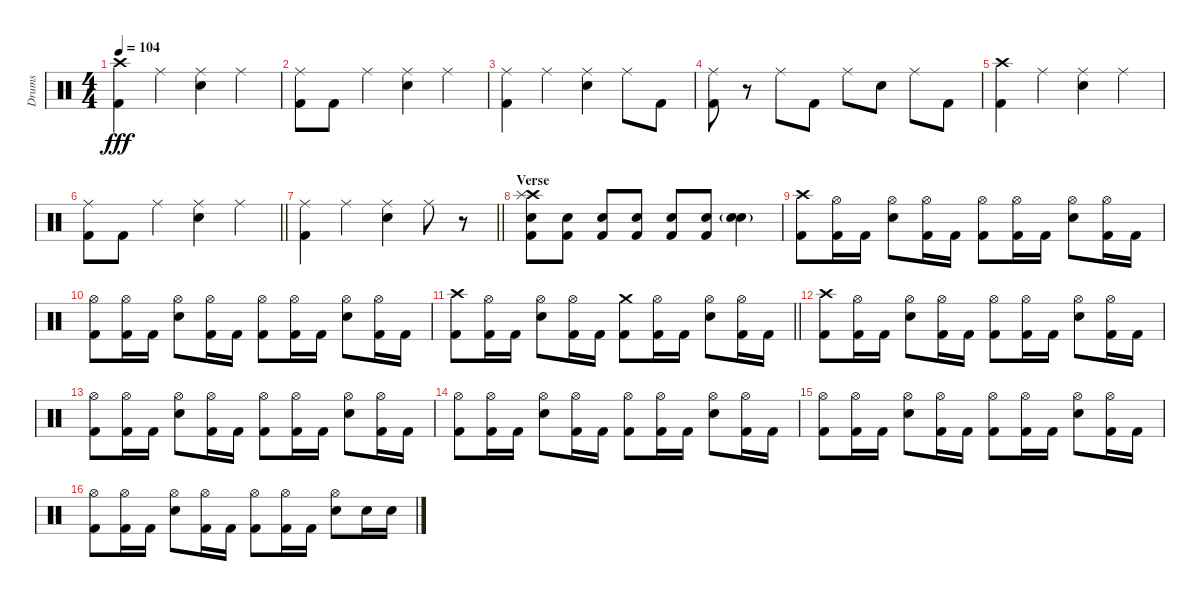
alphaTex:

\track ("Drums" "Drums") {instrument percussion}
\staff {score}
\articulation defaults
\ts (4 4)
\tempo 104
\clef neutral
\ks c
("Crash high (hit)" "Kick (hit) 2").4{dy fff} "Ride (middle)".4 ("Ride (middle)" "Snare (hit) 2").4 "Ride (middle)".4 |
("Ride (middle)" "Kick (hit) 2").8 "Kick (hit) 2".8 "Ride (middle)".4 ("Ride (middle)" "Snare (hit) 2").4 "Ride (middle)".4 |
("Ride (middle)" "Kick (hit) 2").4 "Ride (middle)".4 ("Ride (middle)" "Snare (hit) 2").4 "Ride (middle)".8 "Kick (hit) 2".8 |
("Ride (middle)" "Kick (hit) 2").8 r.8 "Ride (middle)".8 "Kick (hit) 2".8 "Ride (middle)".8 "Snare (hit) 2".8 "Ride (middle)".8 "Kick (hit) 2".8 |
("Crash high (hit)" "Kick (hit) 2").4 "Ride (middle)".4 ("Ride (middle)" "Snare (hit) 2").4 "Ride (middle)".4 |
\barLineRight lightlight
("Ride (middle)" "Kick (hit) 2").8 "Kick (hit) 2".8 "Ride (middle)".4 ("Ride (middle)" "Snare (hit) 2").4 "Ride (middle)".4 |
\barLineRight lightlight
("Ride (middle)" "Kick (hit) 2").4 "Ride (middle)".4 ("Ride (middle)" "Snare (hit) 2").4 "Ride (middle)".8 r.8 |
\section ("" "Verse")
("Crash high (hit)" "Snare (hit) 2" "Splash (hit)" "Kick (hit) 2").8 ("Snare (hit) 2" "Kick (hit) 2").8 ("Snare (hit) 2" "Kick (hit) 2").8 ("Snare (hit) 2" "Kick (hit) 2").8 ("Snare (hit) 2" "Kick (hit) 2").8 ("Snare (hit) 2" "Kick (hit) 2").8 ("Snare (hit) 2" "Electric Snare (hit)"{g}).4 |
("Crash high (hit)" "Kick (hit) 2").8 ("Hi-Hat (open)" "Kick (hit) 2").16 "Kick (hit) 2".16 ("Hi-Hat (open)" "Snare (hit) 2").8 ("Hi-Hat (open)" "Kick (hit) 2").16 "Kick (hit) 2".16 ("Hi-Hat (open)" "Kick (hit) 2").8 ("Hi-Hat (open)" "Kick (hit) 2").16 "Kick (hit) 2".16 ("Hi-Hat (open)" "Snare (hit) 2").8 ("Hi-Hat (open)" "Kick (hit) 2").16 "Kick (hit) 2".16 |
("Hi-Hat (open)" "Kick (hit) 2").8 ("Hi-Hat (open)" "Kick (hit) 2").16 "Kick (hit) 2".16 ("Hi-Hat (open)" "Snare (hit) 2").8 ("Hi-Hat (open)" "Kick (hit) 2").16 "Kick (hit) 2".16 ("Hi-Hat (open)" "Kick (hit) 2").8 ("Hi-Hat (open)" "Kick (hit) 2").16 "Kick (hit) 2".16 ("Hi-Hat (open)" "Snare (hit) 2").8 ("Hi-Hat (open)" "Kick (hit) 2").16 "Kick (hit) 2".16 |
\barLineRight lightlight
("Crash high (hit)" "Kick (hit) 2").8 ("Hi-Hat (open)" "Kick (hit) 2").16 "Kick (hit) 2".16 ("Hi-Hat (open)" "Snare (hit) 2").8 ("Hi-Hat (open)" "Kick (hit) 2").16 "Kick (hit) 2".16 ("Crash medium (hit)" "Kick (hit) 2").8 ("Hi-Hat (open)" "Kick (hit) 2").16 "Kick (hit) 2".16 ("Hi-Hat (open)" "Snare (hit) 2").8 ("Hi-Hat (open)" "Kick (hit) 2").16 "Kick (hit) 2".16 |
("Crash high (hit)" "Kick (hit) 2").8 ("Hi-Hat (open)" "Kick (hit) 2").16 "Kick (hit) 2".16 ("Hi-Hat (open)" "Snare (hit) 2").8 ("Hi-Hat (open)" "Kick (hit) 2").16 "Kick (hit) 2".16 ("Hi-Hat (open)" "Kick (hit) 2").8 ("Hi-Hat (open)" "Kick (hit) 2").16 "Kick (hit) 2".16 ("Hi-Hat (open)" "Snare (hit) 2").8 ("Hi-Hat (open)" "Kick (hit) 2").16 "Kick (hit) 2".16 |
("Hi-Hat (open)" "Kick (hit) 2").8 ("Hi-Hat (open)" "Kick (hit) 2").16 "Kick (hit) 2".16 ("Hi-Hat (open)" "Snare (hit) 2").8 ("Hi-Hat (open)" "Kick (hit) 2").16 "Kick (hit) 2".16 ("Hi-Hat (open)" "Kick (hit) 2").8 ("Hi-Hat (open)" "Kick (hit) 2").16 "Kick (hit) 2".16 ("Hi-Hat (open)" "Snare (hit) 2").8 ("Hi-Hat (open)" "Kick (hit) 2").16 "Kick (hit) 2".16 |
("Hi-Hat (open)" "Kick (hit) 2").8 ("Hi-Hat (open)" "Kick (hit) 2").16 "Kick (hit) 2".16 ("Hi-Hat (open)" "Snare (hit) 2").8 ("Hi-Hat (open)" "Kick (hit) 2").16 "Kick (hit) 2".16 ("Hi-Hat (open)" "Kick (hit) 2").8 ("Hi-Hat (open)" "Kick (hit) 2").16 "Kick (hit) 2".16 ("Hi-Hat (open)" "Snare (hit) 2").8 ("Hi-Hat (open)" "Kick (hit) 2").16 "Kick (hit) 2".16 |
("Hi-Hat (open)" "Kick (hit) 2").8 ("Hi-Hat (open)" "Kick (hit) 2").16 "Kick (hit) 2".16 ("Hi-Hat (open)" "Snare (hit) 2").8 ("Hi-Hat (open)" "Kick (hit) 2").16 "Kick (hit) 2".16 ("Hi-Hat (open)" "Kick (hit) 2").8 ("Hi-Hat (open)" "Kick (hit) 2").16 "Kick (hit) 2".16 ("Hi-Hat (open)" "Snare (hit) 2").8 ("Hi-Hat (open)" "Kick (hit) 2").16 "Kick (hit) 2".16 |
("Hi-Hat (open)" "Kick (hit) 2").8 ("Hi-Hat (open)" "Kick (hit) 2").16 "Kick (hit) 2".16 ("Hi-Hat (open)" "Snare (hit) 2").8 ("Hi-Hat (open)" "Kick (hit) 2").16 "Kick (hit) 2".16 ("Hi-Hat (open)" "Kick (hit) 2").8 ("Hi-Hat (open)" "Kick (hit) 2").16 "Kick (hit) 2".16 ("Hi-Hat (open)" "Snare (hit) 2").8 "Snare (hit) 2".16 "Snare (hit) 2".16
